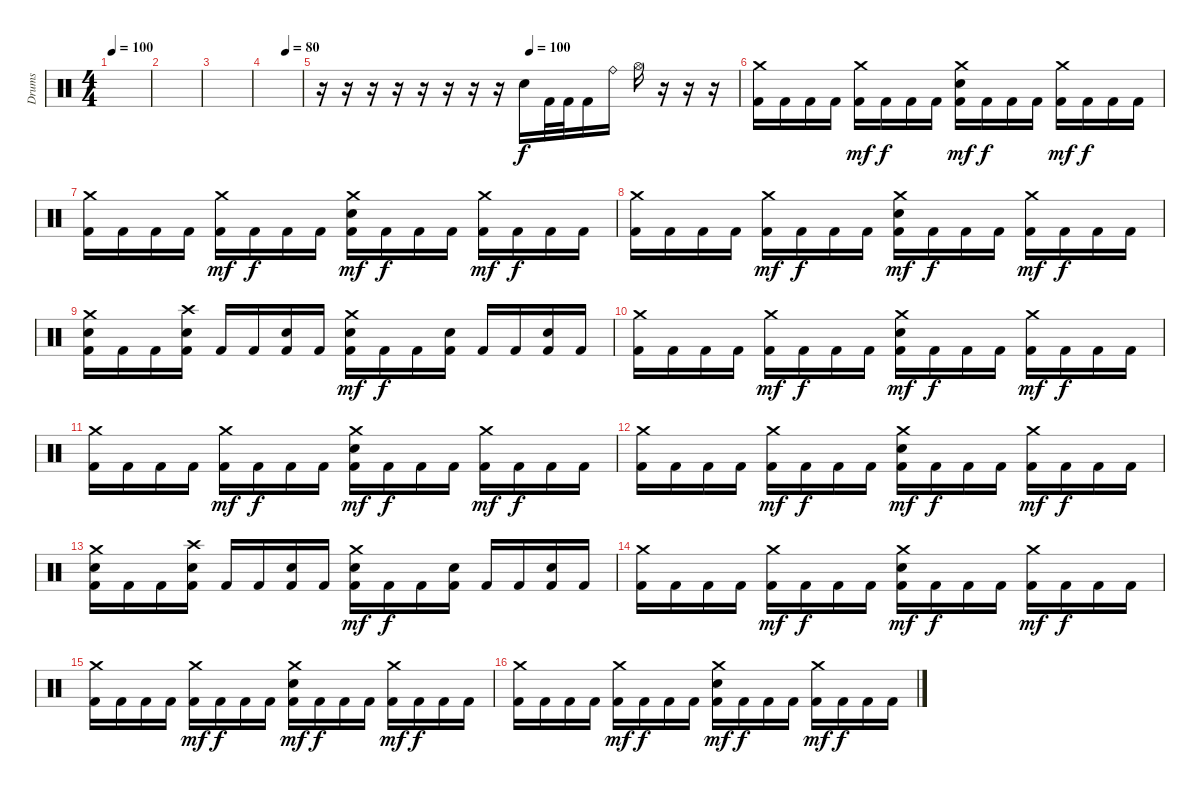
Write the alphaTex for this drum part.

\track ("Drums" "Drums") {instrument percussion}
\staff {score}
\articulation defaults
\ts (4 4)
\tempo 100
\clef neutral
\ks c
|
|
|
\tempo (80 0.5625)
|
\tempo (100 0.5)
r.16 r.16 r.16 r.16 r.16 r.16 r.16 r.16 "Electric Snare (hit)".16 "Kick (hit) 2".32 "Kick (hit) 2".32 "Kick (hit) 2".16 "Ride (bell)".16 "Hi-Hat (open)".16 r.16 r.16 r.16 |
("Kick (hit) 2" "Crash medium (hit)").16 "Kick (hit) 2".16 "Kick (hit) 2".16 "Kick (hit) 2".16 ("Kick (hit) 2" "Crash medium (hit)").16{dy mf} "Kick (hit) 2".16{dy f} "Kick (hit) 2".16 "Kick (hit) 2".16 ("Kick (hit) 2" "Crash medium (hit)" "Electric Snare (hit)").16{dy mf} "Kick (hit) 2".16{dy f} "Kick (hit) 2".16 "Kick (hit) 2".16 ("Kick (hit) 2" "Crash medium (hit)").16{dy mf} "Kick (hit) 2".16{dy f} "Kick (hit) 2".16 "Kick (hit) 2".16 |
("Kick (hit) 2" "Crash medium (hit)").16 "Kick (hit) 2".16 "Kick (hit) 2".16 "Kick (hit) 2".16 ("Kick (hit) 2" "Crash medium (hit)").16{dy mf} "Kick (hit) 2".16{dy f} "Kick (hit) 2".16 "Kick (hit) 2".16 ("Kick (hit) 2" "Crash medium (hit)" "Electric Snare (hit)").16{dy mf} "Kick (hit) 2".16{dy f} "Kick (hit) 2".16 "Kick (hit) 2".16 ("Kick (hit) 2" "Crash medium (hit)").16{dy mf} "Kick (hit) 2".16{dy f} "Kick (hit) 2".16 "Kick (hit) 2".16 |
("Kick (hit) 2" "Crash medium (hit)").16 "Kick (hit) 2".16 "Kick (hit) 2".16 "Kick (hit) 2".16 ("Kick (hit) 2" "Crash medium (hit)").16{dy mf} "Kick (hit) 2".16{dy f} "Kick (hit) 2".16 "Kick (hit) 2".16 ("Kick (hit) 2" "Crash medium (hit)" "Electric Snare (hit)").16{dy mf} "Kick (hit) 2".16{dy f} "Kick (hit) 2".16 "Kick (hit) 2".16 ("Kick (hit) 2" "Crash medium (hit)").16{dy mf} "Kick (hit) 2".16{dy f} "Kick (hit) 2".16 "Kick (hit) 2".16 |
("Kick (hit) 2" "Crash medium (hit)" "Electric Snare (hit)").16 "Kick (hit) 2".16 "Kick (hit) 2".16 ("Kick (hit) 2" "Electric Snare (hit)" "Crash high (hit)").16 "Kick (hit) 2".16 "Kick (hit) 2".16 ("Kick (hit) 2" "Electric Snare (hit)").16 "Kick (hit) 2".16 ("Kick (hit) 2" "Crash medium (hit)" "Electric Snare (hit)").16{dy mf} "Kick (hit) 2".16{dy f} "Kick (hit) 2".16 ("Kick (hit) 2" "Electric Snare (hit)").16 "Kick (hit) 2".16 "Kick (hit) 2".16 ("Kick (hit) 2" "Electric Snare (hit)").16 "Kick (hit) 2".16 |
("Kick (hit) 2" "Crash medium (hit)").16 "Kick (hit) 2".16 "Kick (hit) 2".16 "Kick (hit) 2".16 ("Kick (hit) 2" "Crash medium (hit)").16{dy mf} "Kick (hit) 2".16{dy f} "Kick (hit) 2".16 "Kick (hit) 2".16 ("Kick (hit) 2" "Crash medium (hit)" "Electric Snare (hit)").16{dy mf} "Kick (hit) 2".16{dy f} "Kick (hit) 2".16 "Kick (hit) 2".16 ("Kick (hit) 2" "Crash medium (hit)").16{dy mf} "Kick (hit) 2".16{dy f} "Kick (hit) 2".16 "Kick (hit) 2".16 |
("Kick (hit) 2" "Crash medium (hit)").16 "Kick (hit) 2".16 "Kick (hit) 2".16 "Kick (hit) 2".16 ("Kick (hit) 2" "Crash medium (hit)").16{dy mf} "Kick (hit) 2".16{dy f} "Kick (hit) 2".16 "Kick (hit) 2".16 ("Kick (hit) 2" "Crash medium (hit)" "Electric Snare (hit)").16{dy mf} "Kick (hit) 2".16{dy f} "Kick (hit) 2".16 "Kick (hit) 2".16 ("Kick (hit) 2" "Crash medium (hit)").16{dy mf} "Kick (hit) 2".16{dy f} "Kick (hit) 2".16 "Kick (hit) 2".16 |
("Kick (hit) 2" "Crash medium (hit)").16 "Kick (hit) 2".16 "Kick (hit) 2".16 "Kick (hit) 2".16 ("Kick (hit) 2" "Crash medium (hit)").16{dy mf} "Kick (hit) 2".16{dy f} "Kick (hit) 2".16 "Kick (hit) 2".16 ("Kick (hit) 2" "Crash medium (hit)" "Electric Snare (hit)").16{dy mf} "Kick (hit) 2".16{dy f} "Kick (hit) 2".16 "Kick (hit) 2".16 ("Kick (hit) 2" "Crash medium (hit)").16{dy mf} "Kick (hit) 2".16{dy f} "Kick (hit) 2".16 "Kick (hit) 2".16 |
("Kick (hit) 2" "Crash medium (hit)" "Electric Snare (hit)").16 "Kick (hit) 2".16 "Kick (hit) 2".16 ("Kick (hit) 2" "Electric Snare (hit)" "Crash high (hit)").16 "Kick (hit) 2".16 "Kick (hit) 2".16 ("Kick (hit) 2" "Electric Snare (hit)").16 "Kick (hit) 2".16 ("Kick (hit) 2" "Crash medium (hit)" "Electric Snare (hit)").16{dy mf} "Kick (hit) 2".16{dy f} "Kick (hit) 2".16 ("Kick (hit) 2" "Electric Snare (hit)").16 "Kick (hit) 2".16 "Kick (hit) 2".16 ("Kick (hit) 2" "Electric Snare (hit)").16 "Kick (hit) 2".16 |
("Kick (hit) 2" "Crash medium (hit)").16 "Kick (hit) 2".16 "Kick (hit) 2".16 "Kick (hit) 2".16 ("Kick (hit) 2" "Crash medium (hit)").16{dy mf} "Kick (hit) 2".16{dy f} "Kick (hit) 2".16 "Kick (hit) 2".16 ("Kick (hit) 2" "Crash medium (hit)" "Electric Snare (hit)").16{dy mf} "Kick (hit) 2".16{dy f} "Kick (hit) 2".16 "Kick (hit) 2".16 ("Kick (hit) 2" "Crash medium (hit)").16{dy mf} "Kick (hit) 2".16{dy f} "Kick (hit) 2".16 "Kick (hit) 2".16 |
("Kick (hit) 2" "Crash medium (hit)").16 "Kick (hit) 2".16 "Kick (hit) 2".16 "Kick (hit) 2".16 ("Kick (hit) 2" "Crash medium (hit)").16{dy mf} "Kick (hit) 2".16{dy f} "Kick (hit) 2".16 "Kick (hit) 2".16 ("Kick (hit) 2" "Crash medium (hit)" "Electric Snare (hit)").16{dy mf} "Kick (hit) 2".16{dy f} "Kick (hit) 2".16 "Kick (hit) 2".16 ("Kick (hit) 2" "Crash medium (hit)").16{dy mf} "Kick (hit) 2".16{dy f} "Kick (hit) 2".16 "Kick (hit) 2".16 |
("Kick (hit) 2" "Crash medium (hit)").16 "Kick (hit) 2".16 "Kick (hit) 2".16 "Kick (hit) 2".16 ("Kick (hit) 2" "Crash medium (hit)").16{dy mf} "Kick (hit) 2".16{dy f} "Kick (hit) 2".16 "Kick (hit) 2".16 ("Kick (hit) 2" "Crash medium (hit)" "Electric Snare (hit)").16{dy mf} "Kick (hit) 2".16{dy f} "Kick (hit) 2".16 "Kick (hit) 2".16 ("Kick (hit) 2" "Crash medium (hit)").16{dy mf} "Kick (hit) 2".16{dy f} "Kick (hit) 2".16 "Kick (hit) 2".16
